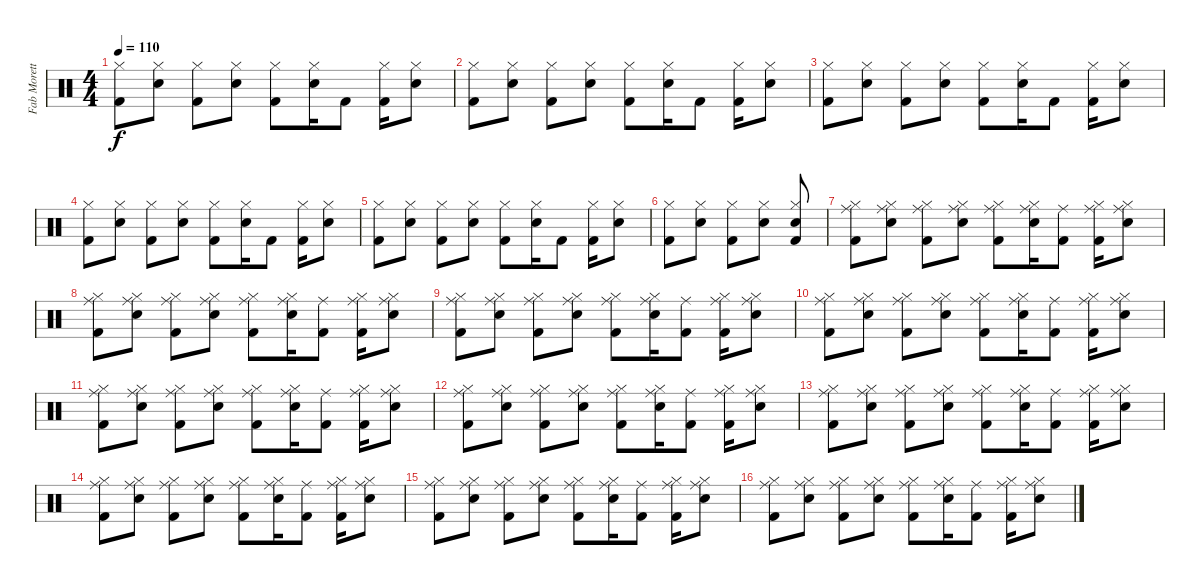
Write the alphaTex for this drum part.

\track ("Fab Moretti" "Fab Morett") {instrument percussion}
\staff {score}
\articulation defaults
\ts (4 4)
\tempo 110
\clef neutral
\ks c
("Kick (hit) 2" "Hi-Hat (closed)").8{dy f} ("Electric Snare (hit)" "Hi-Hat (closed)").8 ("Kick (hit) 2" "Hi-Hat (closed)").8 ("Electric Snare (hit)" "Hi-Hat (closed)").8 ("Kick (hit) 2" "Hi-Hat (closed)").8 ("Electric Snare (hit)" "Hi-Hat (closed)").16 "Kick (hit) 2".8 ("Kick (hit) 2" "Hi-Hat (closed)").16 ("Electric Snare (hit)" "Hi-Hat (closed)").8 |
("Kick (hit) 2" "Hi-Hat (closed)").8 ("Electric Snare (hit)" "Hi-Hat (closed)").8 ("Kick (hit) 2" "Hi-Hat (closed)").8 ("Electric Snare (hit)" "Hi-Hat (closed)").8 ("Kick (hit) 2" "Hi-Hat (closed)").8 ("Electric Snare (hit)" "Hi-Hat (closed)").16 "Kick (hit) 2".8 ("Kick (hit) 2" "Hi-Hat (closed)").16 ("Electric Snare (hit)" "Hi-Hat (closed)").8 |
("Kick (hit) 2" "Hi-Hat (closed)").8 ("Electric Snare (hit)" "Hi-Hat (closed)").8 ("Kick (hit) 2" "Hi-Hat (closed)").8 ("Electric Snare (hit)" "Hi-Hat (closed)").8 ("Kick (hit) 2" "Hi-Hat (closed)").8 ("Electric Snare (hit)" "Hi-Hat (closed)").16 "Kick (hit) 2".8 ("Kick (hit) 2" "Hi-Hat (closed)").16 ("Electric Snare (hit)" "Hi-Hat (closed)").8 |
("Kick (hit) 2" "Hi-Hat (closed)").8 ("Electric Snare (hit)" "Hi-Hat (closed)").8 ("Kick (hit) 2" "Hi-Hat (closed)").8 ("Electric Snare (hit)" "Hi-Hat (closed)").8 ("Kick (hit) 2" "Hi-Hat (closed)").8 ("Electric Snare (hit)" "Hi-Hat (closed)").16 "Kick (hit) 2".8 ("Kick (hit) 2" "Hi-Hat (closed)").16 ("Electric Snare (hit)" "Hi-Hat (closed)").8 |
("Kick (hit) 2" "Hi-Hat (closed)").8 ("Electric Snare (hit)" "Hi-Hat (closed)").8 ("Kick (hit) 2" "Hi-Hat (closed)").8 ("Electric Snare (hit)" "Hi-Hat (closed)").8 ("Kick (hit) 2" "Hi-Hat (closed)").8 ("Electric Snare (hit)" "Hi-Hat (closed)").16 "Kick (hit) 2".8 ("Kick (hit) 2" "Hi-Hat (closed)").16 ("Electric Snare (hit)" "Hi-Hat (closed)").8 |
("Kick (hit) 2" "Hi-Hat (closed)").8 ("Electric Snare (hit)" "Hi-Hat (closed)").8 ("Kick (hit) 2" "Hi-Hat (closed)").8 ("Electric Snare (hit)" "Hi-Hat (closed)").8 ("Kick (hit) 2" "Hi-Hat (closed)" "Electric Snare (hit)").8 |
("Kick (hit) 2" "Hi-Hat (closed)" "Ride (middle)").8 ("Electric Snare (hit)" "Hi-Hat (closed)" "Ride (middle)").8 ("Kick (hit) 2" "Hi-Hat (closed)" "Ride (middle)").8 ("Electric Snare (hit)" "Hi-Hat (closed)" "Ride (middle)").8 ("Kick (hit) 2" "Hi-Hat (closed)" "Ride (middle)").8 ("Electric Snare (hit)" "Hi-Hat (closed)" "Ride (middle)").16 ("Kick (hit) 2" "Ride (middle)").8 ("Kick (hit) 2" "Hi-Hat (closed)" "Ride (middle)").16 ("Electric Snare (hit)" "Hi-Hat (closed)" "Ride (middle)").8 |
("Kick (hit) 2" "Hi-Hat (closed)" "Ride (middle)").8 ("Electric Snare (hit)" "Hi-Hat (closed)" "Ride (middle)").8 ("Kick (hit) 2" "Hi-Hat (closed)" "Ride (middle)").8 ("Electric Snare (hit)" "Hi-Hat (closed)" "Ride (middle)").8 ("Kick (hit) 2" "Hi-Hat (closed)" "Ride (middle)").8 ("Electric Snare (hit)" "Hi-Hat (closed)" "Ride (middle)").16 ("Kick (hit) 2" "Ride (middle)").8 ("Kick (hit) 2" "Hi-Hat (closed)" "Ride (middle)").16 ("Electric Snare (hit)" "Hi-Hat (closed)" "Ride (middle)").8 |
("Kick (hit) 2" "Hi-Hat (closed)" "Ride (middle)").8 ("Electric Snare (hit)" "Hi-Hat (closed)" "Ride (middle)").8 ("Kick (hit) 2" "Hi-Hat (closed)" "Ride (middle)").8 ("Electric Snare (hit)" "Hi-Hat (closed)" "Ride (middle)").8 ("Kick (hit) 2" "Hi-Hat (closed)" "Ride (middle)").8 ("Electric Snare (hit)" "Hi-Hat (closed)" "Ride (middle)").16 ("Kick (hit) 2" "Ride (middle)").8 ("Kick (hit) 2" "Hi-Hat (closed)" "Ride (middle)").16 ("Electric Snare (hit)" "Hi-Hat (closed)" "Ride (middle)").8 |
("Kick (hit) 2" "Hi-Hat (closed)" "Ride (middle)").8 ("Electric Snare (hit)" "Hi-Hat (closed)" "Ride (middle)").8 ("Kick (hit) 2" "Hi-Hat (closed)" "Ride (middle)").8 ("Electric Snare (hit)" "Hi-Hat (closed)" "Ride (middle)").8 ("Kick (hit) 2" "Hi-Hat (closed)" "Ride (middle)").8 ("Electric Snare (hit)" "Hi-Hat (closed)" "Ride (middle)").16 ("Kick (hit) 2" "Ride (middle)").8 ("Kick (hit) 2" "Hi-Hat (closed)" "Ride (middle)").16 ("Electric Snare (hit)" "Hi-Hat (closed)" "Ride (middle)").8 |
("Kick (hit) 2" "Hi-Hat (closed)" "Ride (middle)").8 ("Electric Snare (hit)" "Hi-Hat (closed)" "Ride (middle)").8 ("Kick (hit) 2" "Hi-Hat (closed)" "Ride (middle)").8 ("Electric Snare (hit)" "Hi-Hat (closed)" "Ride (middle)").8 ("Kick (hit) 2" "Hi-Hat (closed)" "Ride (middle)").8 ("Electric Snare (hit)" "Hi-Hat (closed)" "Ride (middle)").16 ("Kick (hit) 2" "Ride (middle)").8 ("Kick (hit) 2" "Hi-Hat (closed)" "Ride (middle)").16 ("Electric Snare (hit)" "Hi-Hat (closed)" "Ride (middle)").8 |
("Kick (hit) 2" "Hi-Hat (closed)" "Ride (middle)").8 ("Electric Snare (hit)" "Hi-Hat (closed)" "Ride (middle)").8 ("Kick (hit) 2" "Hi-Hat (closed)" "Ride (middle)").8 ("Electric Snare (hit)" "Hi-Hat (closed)" "Ride (middle)").8 ("Kick (hit) 2" "Hi-Hat (closed)" "Ride (middle)").8 ("Electric Snare (hit)" "Hi-Hat (closed)" "Ride (middle)").16 ("Kick (hit) 2" "Ride (middle)").8 ("Kick (hit) 2" "Hi-Hat (closed)" "Ride (middle)").16 ("Electric Snare (hit)" "Hi-Hat (closed)" "Ride (middle)").8 |
("Kick (hit) 2" "Hi-Hat (closed)" "Ride (middle)").8 ("Electric Snare (hit)" "Hi-Hat (closed)" "Ride (middle)").8 ("Kick (hit) 2" "Hi-Hat (closed)" "Ride (middle)").8 ("Electric Snare (hit)" "Hi-Hat (closed)" "Ride (middle)").8 ("Kick (hit) 2" "Hi-Hat (closed)" "Ride (middle)").8 ("Electric Snare (hit)" "Hi-Hat (closed)" "Ride (middle)").16 ("Kick (hit) 2" "Ride (middle)").8 ("Kick (hit) 2" "Hi-Hat (closed)" "Ride (middle)").16 ("Electric Snare (hit)" "Hi-Hat (closed)" "Ride (middle)").8 |
("Kick (hit) 2" "Hi-Hat (closed)" "Ride (middle)").8 ("Electric Snare (hit)" "Hi-Hat (closed)" "Ride (middle)").8 ("Kick (hit) 2" "Hi-Hat (closed)" "Ride (middle)").8 ("Electric Snare (hit)" "Hi-Hat (closed)" "Ride (middle)").8 ("Kick (hit) 2" "Hi-Hat (closed)" "Ride (middle)").8 ("Electric Snare (hit)" "Hi-Hat (closed)" "Ride (middle)").16 ("Kick (hit) 2" "Ride (middle)").8 ("Kick (hit) 2" "Hi-Hat (closed)" "Ride (middle)").16 ("Electric Snare (hit)" "Hi-Hat (closed)" "Ride (middle)").8 |
("Kick (hit) 2" "Hi-Hat (closed)" "Ride (middle)").8 ("Electric Snare (hit)" "Hi-Hat (closed)" "Ride (middle)").8 ("Kick (hit) 2" "Hi-Hat (closed)" "Ride (middle)").8 ("Electric Snare (hit)" "Hi-Hat (closed)" "Ride (middle)").8 ("Kick (hit) 2" "Hi-Hat (closed)" "Ride (middle)").8 ("Electric Snare (hit)" "Hi-Hat (closed)" "Ride (middle)").16 ("Kick (hit) 2" "Ride (middle)").8 ("Kick (hit) 2" "Hi-Hat (closed)" "Ride (middle)").16 ("Electric Snare (hit)" "Hi-Hat (closed)" "Ride (middle)").8 |
("Kick (hit) 2" "Hi-Hat (closed)" "Ride (middle)").8 ("Electric Snare (hit)" "Hi-Hat (closed)" "Ride (middle)").8 ("Kick (hit) 2" "Hi-Hat (closed)" "Ride (middle)").8 ("Electric Snare (hit)" "Hi-Hat (closed)" "Ride (middle)").8 ("Kick (hit) 2" "Hi-Hat (closed)" "Ride (middle)").8 ("Electric Snare (hit)" "Hi-Hat (closed)" "Ride (middle)").16 ("Kick (hit) 2" "Ride (middle)").8 ("Kick (hit) 2" "Hi-Hat (closed)" "Ride (middle)").16 ("Electric Snare (hit)" "Hi-Hat (closed)" "Ride (middle)").8
